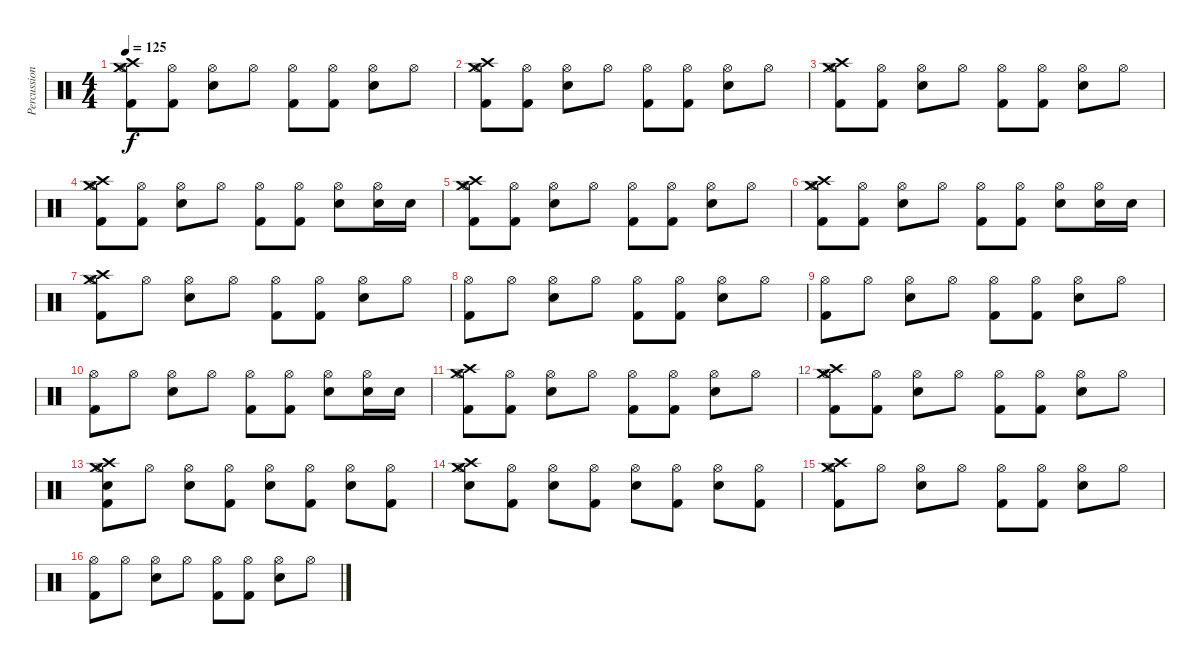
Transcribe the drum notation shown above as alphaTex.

\track ("Percussions" "Percussion") {instrument percussion}
\staff {score}
\articulation defaults
\ts (4 4)
\tempo 125
\clef neutral
\ks c
("Hi-Hat (open)" "Crash high (hit)" "Crash medium (hit)" "Kick (hit) 2").8{dy f} ("Hi-Hat (open)" "Kick (hit) 2").8 ("Hi-Hat (open)" "Electric Snare (hit)").8 "Hi-Hat (open)".8 ("Hi-Hat (open)" "Kick (hit) 2").8 ("Hi-Hat (open)" "Kick (hit) 2").8 ("Hi-Hat (open)" "Electric Snare (hit)").8 "Hi-Hat (open)".8 |
("Hi-Hat (open)" "Crash high (hit)" "Crash medium (hit)" "Kick (hit) 2").8 ("Hi-Hat (open)" "Kick (hit) 2").8 ("Hi-Hat (open)" "Electric Snare (hit)").8 "Hi-Hat (open)".8 ("Hi-Hat (open)" "Kick (hit) 2").8 ("Hi-Hat (open)" "Kick (hit) 2").8 ("Hi-Hat (open)" "Electric Snare (hit)").8 "Hi-Hat (open)".8 |
("Hi-Hat (open)" "Crash high (hit)" "Crash medium (hit)" "Kick (hit) 2").8 ("Hi-Hat (open)" "Kick (hit) 2").8 ("Hi-Hat (open)" "Electric Snare (hit)").8 "Hi-Hat (open)".8 ("Hi-Hat (open)" "Kick (hit) 2").8 ("Hi-Hat (open)" "Kick (hit) 2").8 ("Hi-Hat (open)" "Electric Snare (hit)").8 "Hi-Hat (open)".8 |
("Hi-Hat (open)" "Crash high (hit)" "Crash medium (hit)" "Kick (hit) 2").8 ("Hi-Hat (open)" "Kick (hit) 2").8 ("Hi-Hat (open)" "Electric Snare (hit)").8 "Hi-Hat (open)".8 ("Hi-Hat (open)" "Kick (hit) 2").8 ("Hi-Hat (open)" "Kick (hit) 2").8 ("Hi-Hat (open)" "Electric Snare (hit)").8 ("Hi-Hat (open)" "Electric Snare (hit)").16 "Electric Snare (hit)".16 |
("Hi-Hat (open)" "Crash high (hit)" "Crash medium (hit)" "Kick (hit) 2").8 ("Hi-Hat (open)" "Kick (hit) 2").8 ("Hi-Hat (open)" "Electric Snare (hit)").8 "Hi-Hat (open)".8 ("Hi-Hat (open)" "Kick (hit) 2").8 ("Hi-Hat (open)" "Kick (hit) 2").8 ("Hi-Hat (open)" "Electric Snare (hit)").8 "Hi-Hat (open)".8 |
("Hi-Hat (open)" "Crash high (hit)" "Crash medium (hit)" "Kick (hit) 2").8 ("Hi-Hat (open)" "Kick (hit) 2").8 ("Hi-Hat (open)" "Electric Snare (hit)").8 "Hi-Hat (open)".8 ("Hi-Hat (open)" "Kick (hit) 2").8 ("Hi-Hat (open)" "Kick (hit) 2").8 ("Hi-Hat (open)" "Electric Snare (hit)").8 ("Hi-Hat (open)" "Electric Snare (hit)").16 "Electric Snare (hit)".16 |
("Hi-Hat (open)" "Crash high (hit)" "Crash medium (hit)" "Kick (hit) 2").8 "Hi-Hat (open)".8 ("Hi-Hat (open)" "Electric Snare (hit)").8 "Hi-Hat (open)".8 ("Hi-Hat (open)" "Kick (hit) 2").8 ("Hi-Hat (open)" "Kick (hit) 2").8 ("Hi-Hat (open)" "Electric Snare (hit)").8 "Hi-Hat (open)".8 |
("Hi-Hat (open)" "Kick (hit) 2").8 "Hi-Hat (open)".8 ("Hi-Hat (open)" "Electric Snare (hit)").8 "Hi-Hat (open)".8 ("Hi-Hat (open)" "Kick (hit) 2").8 ("Hi-Hat (open)" "Kick (hit) 2").8 ("Hi-Hat (open)" "Electric Snare (hit)").8 "Hi-Hat (open)".8 |
("Hi-Hat (open)" "Kick (hit) 2").8 "Hi-Hat (open)".8 ("Hi-Hat (open)" "Electric Snare (hit)").8 "Hi-Hat (open)".8 ("Hi-Hat (open)" "Kick (hit) 2").8 ("Hi-Hat (open)" "Kick (hit) 2").8 ("Hi-Hat (open)" "Electric Snare (hit)").8 "Hi-Hat (open)".8 |
("Hi-Hat (open)" "Kick (hit) 2").8 "Hi-Hat (open)".8 ("Hi-Hat (open)" "Electric Snare (hit)").8 "Hi-Hat (open)".8 ("Hi-Hat (open)" "Kick (hit) 2").8 ("Hi-Hat (open)" "Kick (hit) 2").8 ("Hi-Hat (open)" "Electric Snare (hit)").8 ("Hi-Hat (open)" "Electric Snare (hit)").16 "Electric Snare (hit)".16 |
("Hi-Hat (open)" "Crash high (hit)" "Crash medium (hit)" "Kick (hit) 2").8 ("Hi-Hat (open)" "Kick (hit) 2").8 ("Hi-Hat (open)" "Electric Snare (hit)").8 "Hi-Hat (open)".8 ("Hi-Hat (open)" "Kick (hit) 2").8 ("Hi-Hat (open)" "Kick (hit) 2").8 ("Hi-Hat (open)" "Electric Snare (hit)").8 "Hi-Hat (open)".8 |
("Hi-Hat (open)" "Crash high (hit)" "Crash medium (hit)" "Kick (hit) 2").8 ("Hi-Hat (open)" "Kick (hit) 2").8 ("Hi-Hat (open)" "Electric Snare (hit)").8 "Hi-Hat (open)".8 ("Hi-Hat (open)" "Kick (hit) 2").8 ("Hi-Hat (open)" "Kick (hit) 2").8 ("Hi-Hat (open)" "Electric Snare (hit)").8 "Hi-Hat (open)".8 |
("Hi-Hat (open)" "Crash high (hit)" "Crash medium (hit)" "Electric Snare (hit)" "Kick (hit) 2").8 "Hi-Hat (open)".8 ("Hi-Hat (open)" "Electric Snare (hit)").8 ("Hi-Hat (open)" "Kick (hit) 2").8 ("Hi-Hat (open)" "Electric Snare (hit)").8 ("Hi-Hat (open)" "Kick (hit) 2").8 ("Hi-Hat (open)" "Electric Snare (hit)").8 ("Hi-Hat (open)" "Kick (hit) 2").8 |
("Hi-Hat (open)" "Crash high (hit)" "Crash medium (hit)" "Electric Snare (hit)").8 ("Hi-Hat (open)" "Kick (hit) 2").8 ("Hi-Hat (open)" "Electric Snare (hit)").8 ("Hi-Hat (open)" "Kick (hit) 2").8 ("Hi-Hat (open)" "Electric Snare (hit)").8 ("Hi-Hat (open)" "Kick (hit) 2").8 ("Hi-Hat (open)" "Electric Snare (hit)").8 ("Hi-Hat (open)" "Kick (hit) 2").8 |
("Hi-Hat (open)" "Crash high (hit)" "Crash medium (hit)" "Kick (hit) 2").8 "Hi-Hat (open)".8 ("Hi-Hat (open)" "Electric Snare (hit)").8 "Hi-Hat (open)".8 ("Hi-Hat (open)" "Kick (hit) 2").8 ("Hi-Hat (open)" "Kick (hit) 2").8 ("Hi-Hat (open)" "Electric Snare (hit)").8 "Hi-Hat (open)".8 |
("Hi-Hat (open)" "Kick (hit) 2").8 "Hi-Hat (open)".8 ("Hi-Hat (open)" "Electric Snare (hit)").8 "Hi-Hat (open)".8 ("Hi-Hat (open)" "Kick (hit) 2").8 ("Hi-Hat (open)" "Kick (hit) 2").8 ("Hi-Hat (open)" "Electric Snare (hit)").8 "Hi-Hat (open)".8
